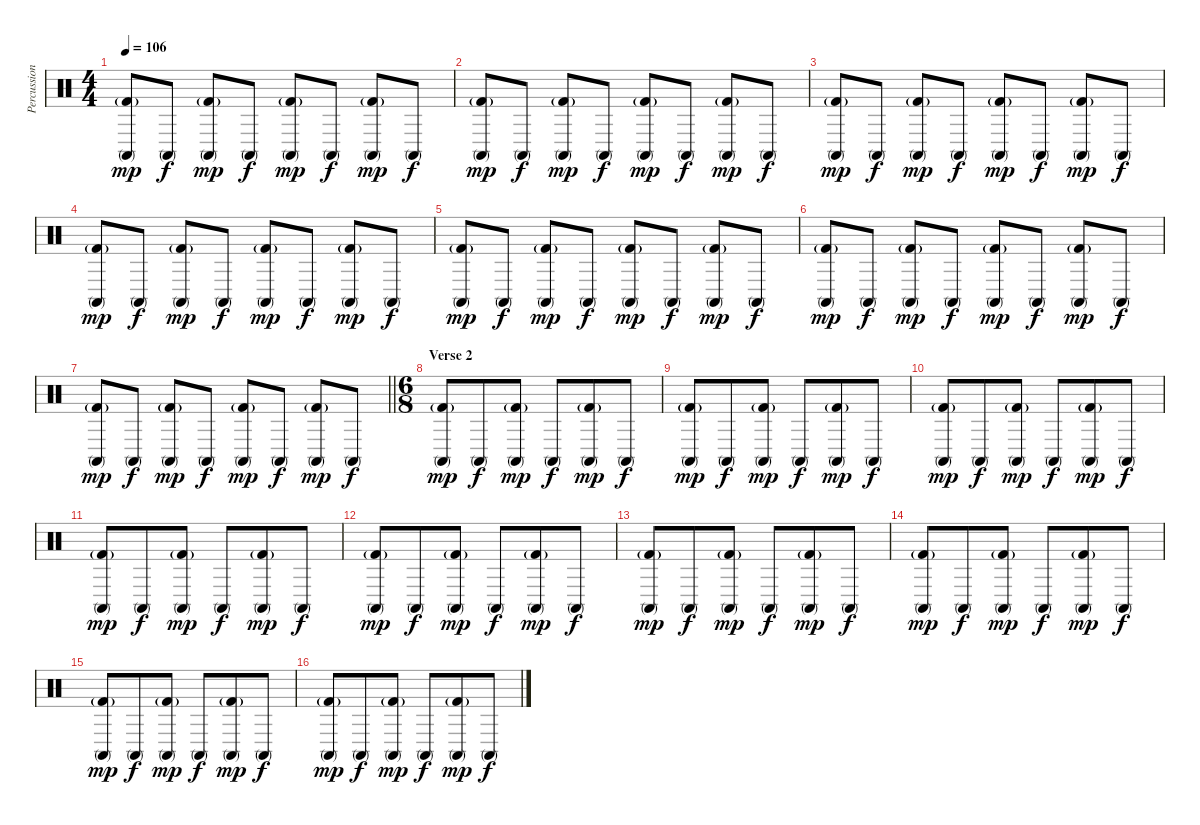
\track ("Percussion" "Percussion") {instrument percussion}
\staff {score}
\articulation defaults
\ts (4 4)
\tempo 106
\clef neutral
\ks c
("Conga high (mute)" "Kick (hit) 2"{g}).8{dy mp} "Conga high (mute)".8{dy f} ("Conga high (mute)" "Kick (hit) 2"{g}).8{dy mp} "Conga high (mute)".8{dy f} ("Conga high (mute)" "Kick (hit) 2"{g}).8{dy mp} "Conga high (mute)".8{dy f} ("Conga high (mute)" "Kick (hit) 2"{g}).8{dy mp} "Conga high (mute)".8{dy f} |
("Conga high (mute)" "Kick (hit) 2"{g}).8{dy mp} "Conga high (mute)".8{dy f} ("Conga high (mute)" "Kick (hit) 2"{g}).8{dy mp} "Conga high (mute)".8{dy f} ("Conga high (mute)" "Kick (hit) 2"{g}).8{dy mp} "Conga high (mute)".8{dy f} ("Conga high (mute)" "Kick (hit) 2"{g}).8{dy mp} "Conga high (mute)".8{dy f} |
("Conga high (mute)" "Kick (hit) 2"{g}).8{dy mp} "Conga high (mute)".8{dy f} ("Conga high (mute)" "Kick (hit) 2"{g}).8{dy mp} "Conga high (mute)".8{dy f} ("Conga high (mute)" "Kick (hit) 2"{g}).8{dy mp} "Conga high (mute)".8{dy f} ("Conga high (mute)" "Kick (hit) 2"{g}).8{dy mp} "Conga high (mute)".8{dy f} |
("Conga high (mute)" "Kick (hit) 2"{g}).8{dy mp} "Conga high (mute)".8{dy f} ("Conga high (mute)" "Kick (hit) 2"{g}).8{dy mp} "Conga high (mute)".8{dy f} ("Conga high (mute)" "Kick (hit) 2"{g}).8{dy mp} "Conga high (mute)".8{dy f} ("Conga high (mute)" "Kick (hit) 2"{g}).8{dy mp} "Conga high (mute)".8{dy f} |
("Conga high (mute)" "Kick (hit) 2"{g}).8{dy mp} "Conga high (mute)".8{dy f} ("Conga high (mute)" "Kick (hit) 2"{g}).8{dy mp} "Conga high (mute)".8{dy f} ("Conga high (mute)" "Kick (hit) 2"{g}).8{dy mp} "Conga high (mute)".8{dy f} ("Conga high (mute)" "Kick (hit) 2"{g}).8{dy mp} "Conga high (mute)".8{dy f} |
("Conga high (mute)" "Kick (hit) 2"{g}).8{dy mp} "Conga high (mute)".8{dy f} ("Conga high (mute)" "Kick (hit) 2"{g}).8{dy mp} "Conga high (mute)".8{dy f} ("Conga high (mute)" "Kick (hit) 2"{g}).8{dy mp} "Conga high (mute)".8{dy f} ("Conga high (mute)" "Kick (hit) 2"{g}).8{dy mp} "Conga high (mute)".8{dy f} |
\barLineRight lightlight
("Conga high (mute)" "Kick (hit) 2"{g}).8{dy mp} "Conga high (mute)".8{dy f} ("Conga high (mute)" "Kick (hit) 2"{g}).8{dy mp} "Conga high (mute)".8{dy f} ("Conga high (mute)" "Kick (hit) 2"{g}).8{dy mp} "Conga high (mute)".8{dy f} ("Conga high (mute)" "Kick (hit) 2"{g}).8{dy mp} "Conga high (mute)".8{dy f} |
\ts (6 8)
\section ("" "Verse 2")
("Conga high (mute)" "Kick (hit) 2"{g}).8{dy mp} "Conga high (mute)".8{dy f} ("Conga high (mute)" "Kick (hit) 2"{g}).8{dy mp} "Conga high (mute)".8{dy f} ("Conga high (mute)" "Kick (hit) 2"{g}).8{dy mp} "Conga high (mute)".8{dy f} |
("Conga high (mute)" "Kick (hit) 2"{g}).8{dy mp} "Conga high (mute)".8{dy f} ("Conga high (mute)" "Kick (hit) 2"{g}).8{dy mp} "Conga high (mute)".8{dy f} ("Conga high (mute)" "Kick (hit) 2"{g}).8{dy mp} "Conga high (mute)".8{dy f} |
("Conga high (mute)" "Kick (hit) 2"{g}).8{dy mp} "Conga high (mute)".8{dy f} ("Conga high (mute)" "Kick (hit) 2"{g}).8{dy mp} "Conga high (mute)".8{dy f} ("Conga high (mute)" "Kick (hit) 2"{g}).8{dy mp} "Conga high (mute)".8{dy f} |
("Conga high (mute)" "Kick (hit) 2"{g}).8{dy mp} "Conga high (mute)".8{dy f} ("Conga high (mute)" "Kick (hit) 2"{g}).8{dy mp} "Conga high (mute)".8{dy f} ("Conga high (mute)" "Kick (hit) 2"{g}).8{dy mp} "Conga high (mute)".8{dy f} |
("Conga high (mute)" "Kick (hit) 2"{g}).8{dy mp} "Conga high (mute)".8{dy f} ("Conga high (mute)" "Kick (hit) 2"{g}).8{dy mp} "Conga high (mute)".8{dy f} ("Conga high (mute)" "Kick (hit) 2"{g}).8{dy mp} "Conga high (mute)".8{dy f} |
("Conga high (mute)" "Kick (hit) 2"{g}).8{dy mp} "Conga high (mute)".8{dy f} ("Conga high (mute)" "Kick (hit) 2"{g}).8{dy mp} "Conga high (mute)".8{dy f} ("Conga high (mute)" "Kick (hit) 2"{g}).8{dy mp} "Conga high (mute)".8{dy f} |
("Conga high (mute)" "Kick (hit) 2"{g}).8{dy mp} "Conga high (mute)".8{dy f} ("Conga high (mute)" "Kick (hit) 2"{g}).8{dy mp} "Conga high (mute)".8{dy f} ("Conga high (mute)" "Kick (hit) 2"{g}).8{dy mp} "Conga high (mute)".8{dy f} |
("Conga high (mute)" "Kick (hit) 2"{g}).8{dy mp} "Conga high (mute)".8{dy f} ("Conga high (mute)" "Kick (hit) 2"{g}).8{dy mp} "Conga high (mute)".8{dy f} ("Conga high (mute)" "Kick (hit) 2"{g}).8{dy mp} "Conga high (mute)".8{dy f} |
("Conga high (mute)" "Kick (hit) 2"{g}).8{dy mp} "Conga high (mute)".8{dy f} ("Conga high (mute)" "Kick (hit) 2"{g}).8{dy mp} "Conga high (mute)".8{dy f} ("Conga high (mute)" "Kick (hit) 2"{g}).8{dy mp} "Conga high (mute)".8{dy f}
